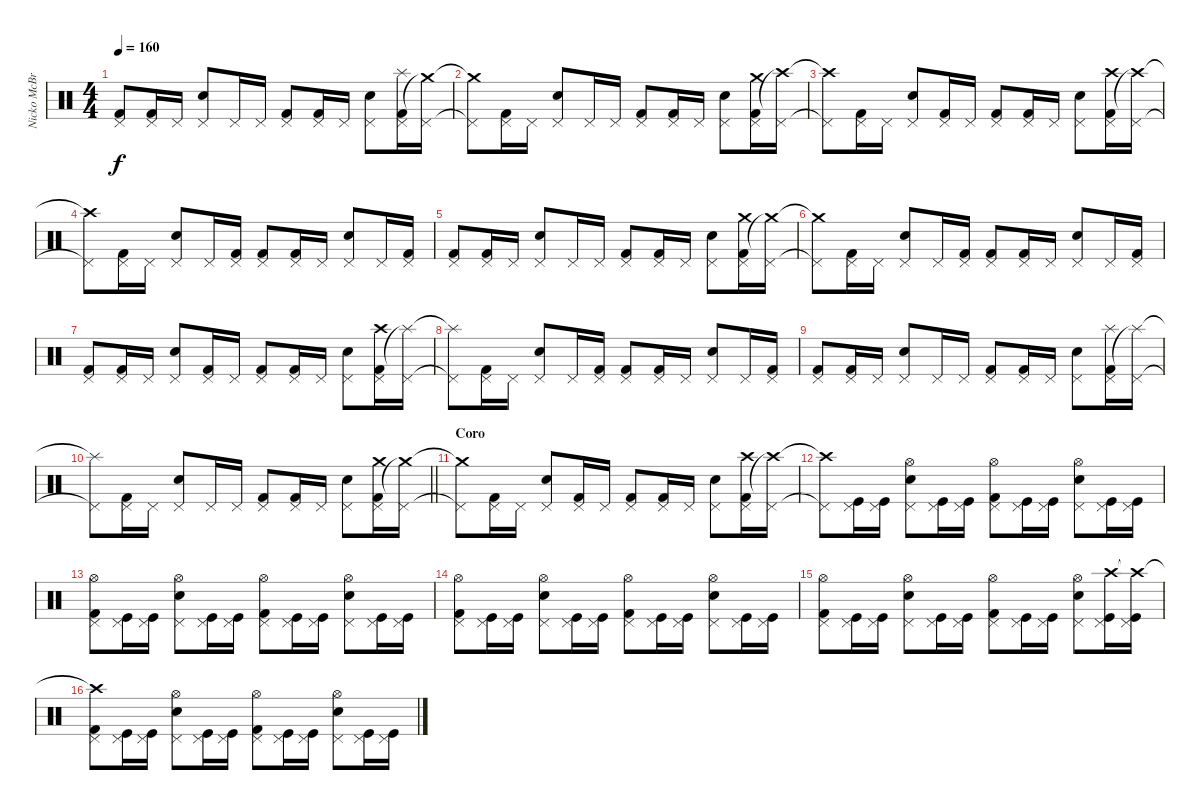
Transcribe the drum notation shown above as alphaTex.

\track ("Nicko McBrain" "Nicko McBr") {instrument percussion}
\staff {score}
\articulation defaults
\ts (4 4)
\tempo 160
\clef neutral
\ks c
("Pedal Hi-Hat (hit)" "Kick (hit) 2").8{dy f} ("Pedal Hi-Hat (hit)" "Kick (hit) 2").16 "Pedal Hi-Hat (hit)".16 ("Pedal Hi-Hat (hit)" "Snare (hit) 2").8 "Pedal Hi-Hat (hit)".16 "Pedal Hi-Hat (hit)".16 ("Pedal Hi-Hat (hit)" "Kick (hit) 2").8 ("Pedal Hi-Hat (hit)" "Kick (hit) 2").16 "Pedal Hi-Hat (hit)".16 ("Pedal Hi-Hat (hit)" "Snare (hit) 2").8 ("Pedal Hi-Hat (hit)" "Kick (hit) 2" "Splash (hit)").16 ("Pedal Hi-Hat (hit)" "Crash medium (hit)"{t}).16 |
("Pedal Hi-Hat (hit)"{t} "Crash medium (hit)"{t}).8 ("Pedal Hi-Hat (hit)" "Kick (hit) 2").16 "Pedal Hi-Hat (hit)".16 ("Pedal Hi-Hat (hit)" "Snare (hit) 2").8 "Pedal Hi-Hat (hit)".16 "Pedal Hi-Hat (hit)".16 ("Pedal Hi-Hat (hit)" "Kick (hit) 2").8 ("Pedal Hi-Hat (hit)" "Kick (hit) 2").16 "Pedal Hi-Hat (hit)".16 ("Pedal Hi-Hat (hit)" "Snare (hit) 2").8 ("Pedal Hi-Hat (hit)" "Kick (hit) 2" "Crash medium (hit)").16 ("Pedal Hi-Hat (hit)" "Crash high (hit)"{t}).16 |
("Pedal Hi-Hat (hit)"{t} "Crash high (hit)"{t}).8 ("Pedal Hi-Hat (hit)" "Kick (hit) 2").16 "Pedal Hi-Hat (hit)".16 ("Pedal Hi-Hat (hit)" "Snare (hit) 2").8 ("Pedal Hi-Hat (hit)" "Kick (hit) 2").16 "Pedal Hi-Hat (hit)".16 ("Pedal Hi-Hat (hit)" "Kick (hit) 2").8 ("Pedal Hi-Hat (hit)" "Kick (hit) 2").16 "Pedal Hi-Hat (hit)".16 ("Pedal Hi-Hat (hit)" "Snare (hit) 2").8 ("Pedal Hi-Hat (hit)" "Kick (hit) 2" "Crash high (hit)").16 ("Pedal Hi-Hat (hit)" "Crash high (hit)"{t}).16 |
("Pedal Hi-Hat (hit)"{t} "Crash high (hit)"{t}).8 ("Pedal Hi-Hat (hit)" "Kick (hit) 2").16 "Pedal Hi-Hat (hit)".16 ("Pedal Hi-Hat (hit)" "Snare (hit) 2").8 "Pedal Hi-Hat (hit)".16 ("Pedal Hi-Hat (hit)" "Kick (hit) 2").16 ("Pedal Hi-Hat (hit)" "Kick (hit) 2").8 ("Pedal Hi-Hat (hit)" "Kick (hit) 2").16 "Pedal Hi-Hat (hit)".16 ("Pedal Hi-Hat (hit)" "Snare (hit) 2").8 "Pedal Hi-Hat (hit)".16 ("Pedal Hi-Hat (hit)" "Kick (hit) 2").16 |
("Pedal Hi-Hat (hit)" "Kick (hit) 2").8 ("Pedal Hi-Hat (hit)" "Kick (hit) 2").16 "Pedal Hi-Hat (hit)".16 ("Pedal Hi-Hat (hit)" "Snare (hit) 2").8 "Pedal Hi-Hat (hit)".16 "Pedal Hi-Hat (hit)".16 ("Pedal Hi-Hat (hit)" "Kick (hit) 2").8 ("Pedal Hi-Hat (hit)" "Kick (hit) 2").16 "Pedal Hi-Hat (hit)".16 ("Pedal Hi-Hat (hit)" "Snare (hit) 2").8 ("Pedal Hi-Hat (hit)" "Kick (hit) 2" "Crash medium (hit)").16 ("Pedal Hi-Hat (hit)" "Crash medium (hit)"{t}).16 |
("Pedal Hi-Hat (hit)"{t} "Crash medium (hit)"{t}).8 ("Pedal Hi-Hat (hit)" "Kick (hit) 2").16 "Pedal Hi-Hat (hit)".16 ("Pedal Hi-Hat (hit)" "Snare (hit) 2").8 "Pedal Hi-Hat (hit)".16 ("Pedal Hi-Hat (hit)" "Kick (hit) 2").16 ("Pedal Hi-Hat (hit)" "Kick (hit) 2").8 ("Pedal Hi-Hat (hit)" "Kick (hit) 2").16 "Pedal Hi-Hat (hit)".16 ("Pedal Hi-Hat (hit)" "Snare (hit) 2").8 "Pedal Hi-Hat (hit)".16 ("Pedal Hi-Hat (hit)" "Kick (hit) 2").16 |
("Pedal Hi-Hat (hit)" "Kick (hit) 2").8 ("Pedal Hi-Hat (hit)" "Kick (hit) 2").16 "Pedal Hi-Hat (hit)".16 ("Pedal Hi-Hat (hit)" "Snare (hit) 2").8 ("Pedal Hi-Hat (hit)" "Kick (hit) 2").16 "Pedal Hi-Hat (hit)".16 ("Pedal Hi-Hat (hit)" "Kick (hit) 2").8 ("Pedal Hi-Hat (hit)" "Kick (hit) 2").16 "Pedal Hi-Hat (hit)".16 ("Pedal Hi-Hat (hit)" "Snare (hit) 2").8 ("Pedal Hi-Hat (hit)" "Kick (hit) 2" "Crash high (hit)").16 ("Pedal Hi-Hat (hit)" "Splash (hit)"{t}).16 |
("Pedal Hi-Hat (hit)"{t} "Splash (hit)"{t}).8 ("Pedal Hi-Hat (hit)" "Kick (hit) 2").16 "Pedal Hi-Hat (hit)".16 ("Pedal Hi-Hat (hit)" "Snare (hit) 2").8 "Pedal Hi-Hat (hit)".16 ("Pedal Hi-Hat (hit)" "Kick (hit) 2").16 ("Pedal Hi-Hat (hit)" "Kick (hit) 2").8 ("Pedal Hi-Hat (hit)" "Kick (hit) 2").16 "Pedal Hi-Hat (hit)".16 ("Pedal Hi-Hat (hit)" "Snare (hit) 2").8 "Pedal Hi-Hat (hit)".16 ("Pedal Hi-Hat (hit)" "Kick (hit) 2").16 |
("Pedal Hi-Hat (hit)" "Kick (hit) 2").8 ("Pedal Hi-Hat (hit)" "Kick (hit) 2").16 "Pedal Hi-Hat (hit)".16 ("Pedal Hi-Hat (hit)" "Snare (hit) 2").8 "Pedal Hi-Hat (hit)".16 "Pedal Hi-Hat (hit)".16 ("Pedal Hi-Hat (hit)" "Kick (hit) 2").8 ("Pedal Hi-Hat (hit)" "Kick (hit) 2").16 "Pedal Hi-Hat (hit)".16 ("Pedal Hi-Hat (hit)" "Snare (hit) 2").8 ("Pedal Hi-Hat (hit)" "Kick (hit) 2" "Splash (hit)").16 ("Pedal Hi-Hat (hit)" "Splash (hit)"{t}).16 |
\barLineRight lightlight
("Pedal Hi-Hat (hit)"{t} "Splash (hit)"{t}).8 ("Pedal Hi-Hat (hit)" "Kick (hit) 2").16 "Pedal Hi-Hat (hit)".16 ("Pedal Hi-Hat (hit)" "Snare (hit) 2").8 "Pedal Hi-Hat (hit)".16 "Pedal Hi-Hat (hit)".16 ("Pedal Hi-Hat (hit)" "Kick (hit) 2").8 ("Pedal Hi-Hat (hit)" "Kick (hit) 2").16 "Pedal Hi-Hat (hit)".16 ("Pedal Hi-Hat (hit)" "Snare (hit) 2").8 ("Pedal Hi-Hat (hit)" "Kick (hit) 2" "Crash medium (hit)").16 ("Pedal Hi-Hat (hit)" "Crash medium (hit)"{t}).16 |
\section ("" "Coro")
("Pedal Hi-Hat (hit)"{t} "Crash medium (hit)"{t}).8 ("Pedal Hi-Hat (hit)" "Kick (hit) 2").16 "Pedal Hi-Hat (hit)".16 ("Pedal Hi-Hat (hit)" "Snare (hit) 2").8 ("Pedal Hi-Hat (hit)" "Kick (hit) 2").16 "Pedal Hi-Hat (hit)".16 ("Pedal Hi-Hat (hit)" "Kick (hit) 2").8 ("Pedal Hi-Hat (hit)" "Kick (hit) 2").16 "Pedal Hi-Hat (hit)".16 ("Snare (hit) 2" "Pedal Hi-Hat (hit)").8 ("Pedal Hi-Hat (hit)" "Kick (hit) 2" "Crash high (hit)").16 ("Pedal Hi-Hat (hit)" "Crash high (hit)"{t}).16 |
("Pedal Hi-Hat (hit)"{t} "Crash high (hit)"{t}).8 ("Kick (hit)" "Pedal Hi-Hat (hit)").16 ("Kick (hit)" "Pedal Hi-Hat (hit)").16 ("Snare (hit) 2" "Pedal Hi-Hat (hit)" "Hi-Hat (open)").8 ("Kick (hit)" "Pedal Hi-Hat (hit)").16 ("Kick (hit)" "Pedal Hi-Hat (hit)").16 ("Kick (hit) 2" "Pedal Hi-Hat (hit)" "Hi-Hat (open)").8 ("Kick (hit)" "Pedal Hi-Hat (hit)").16 ("Kick (hit)" "Pedal Hi-Hat (hit)").16 ("Snare (hit) 2" "Pedal Hi-Hat (hit)" "Hi-Hat (open)").8 ("Kick (hit)" "Pedal Hi-Hat (hit)").16 ("Kick (hit)" "Pedal Hi-Hat (hit)").16 |
("Kick (hit) 2" "Pedal Hi-Hat (hit)" "Hi-Hat (open)").8 ("Kick (hit)" "Pedal Hi-Hat (hit)").16 ("Kick (hit)" "Pedal Hi-Hat (hit)").16 ("Snare (hit) 2" "Pedal Hi-Hat (hit)" "Hi-Hat (open)").8 ("Kick (hit)" "Pedal Hi-Hat (hit)").16 ("Kick (hit)" "Pedal Hi-Hat (hit)").16 ("Kick (hit) 2" "Pedal Hi-Hat (hit)" "Hi-Hat (open)").8 ("Kick (hit)" "Pedal Hi-Hat (hit)").16 ("Kick (hit)" "Pedal Hi-Hat (hit)").16 ("Snare (hit) 2" "Pedal Hi-Hat (hit)" "Hi-Hat (open)").8 ("Kick (hit)" "Pedal Hi-Hat (hit)").16 ("Kick (hit)" "Pedal Hi-Hat (hit)").16 |
("Kick (hit) 2" "Pedal Hi-Hat (hit)" "Hi-Hat (open)").8 ("Kick (hit)" "Pedal Hi-Hat (hit)").16 ("Kick (hit)" "Pedal Hi-Hat (hit)").16 ("Snare (hit) 2" "Pedal Hi-Hat (hit)" "Hi-Hat (open)").8 ("Kick (hit)" "Pedal Hi-Hat (hit)").16 ("Kick (hit)" "Pedal Hi-Hat (hit)").16 ("Kick (hit) 2" "Pedal Hi-Hat (hit)" "Hi-Hat (open)").8 ("Kick (hit)" "Pedal Hi-Hat (hit)").16 ("Kick (hit)" "Pedal Hi-Hat (hit)").16 ("Snare (hit) 2" "Pedal Hi-Hat (hit)" "Hi-Hat (open)").8 ("Kick (hit)" "Pedal Hi-Hat (hit)").16 ("Kick (hit)" "Pedal Hi-Hat (hit)").16 |
("Kick (hit) 2" "Pedal Hi-Hat (hit)" "Hi-Hat (open)").8 ("Kick (hit)" "Pedal Hi-Hat (hit)").16 ("Kick (hit)" "Pedal Hi-Hat (hit)").16 ("Snare (hit) 2" "Pedal Hi-Hat (hit)" "Hi-Hat (open)").8 ("Kick (hit)" "Pedal Hi-Hat (hit)").16 ("Kick (hit)" "Pedal Hi-Hat (hit)").16 ("Kick (hit) 2" "Pedal Hi-Hat (hit)" "Hi-Hat (open)").8 ("Kick (hit)" "Pedal Hi-Hat (hit)").16 ("Kick (hit)" "Pedal Hi-Hat (hit)").16 ("Snare (hit) 2" "Pedal Hi-Hat (hit)" "Hi-Hat (open)").8 ("Kick (hit)" "Pedal Hi-Hat (hit)" "Crash high (hit)").16 ("Kick (hit)" "Pedal Hi-Hat (hit)" "Crash high (hit)"{t}).16 |
("Kick (hit) 2" "Pedal Hi-Hat (hit)" "Crash high (hit)"{t}).8 ("Kick (hit)" "Pedal Hi-Hat (hit)").16 ("Kick (hit)" "Pedal Hi-Hat (hit)").16 ("Snare (hit) 2" "Pedal Hi-Hat (hit)" "Hi-Hat (open)").8 ("Kick (hit)" "Pedal Hi-Hat (hit)").16 ("Kick (hit)" "Pedal Hi-Hat (hit)").16 ("Kick (hit) 2" "Pedal Hi-Hat (hit)" "Hi-Hat (open)").8 ("Kick (hit)" "Pedal Hi-Hat (hit)").16 ("Kick (hit)" "Pedal Hi-Hat (hit)").16 ("Snare (hit) 2" "Pedal Hi-Hat (hit)" "Hi-Hat (open)").8 ("Kick (hit)" "Pedal Hi-Hat (hit)").16 ("Kick (hit)" "Pedal Hi-Hat (hit)").16
